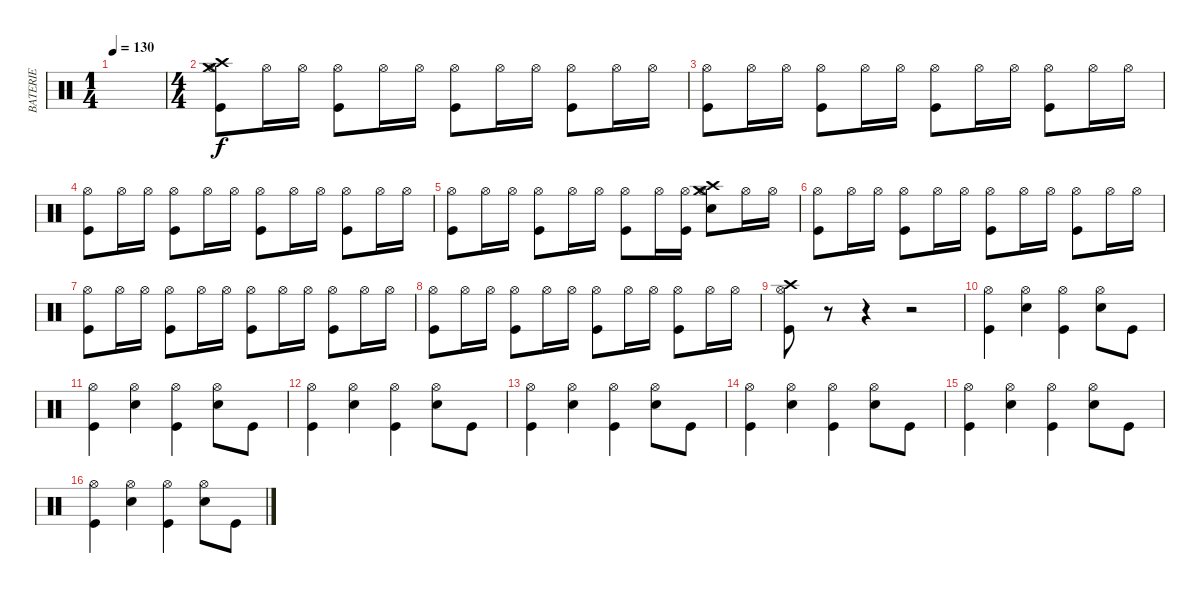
\track ("BATERIE" "BATERIE") {instrument percussion}
\staff {score}
\articulation defaults
\ts (1 4)
\tempo 130
\clef neutral
\ks c
|
\ts (4 4)
("Crash high (hit)" "Crash medium (hit)" "Hi-Hat (open)" "Kick (hit)").8 "Hi-Hat (open)".16 "Hi-Hat (open)".16 ("Hi-Hat (open)" "Kick (hit)").8 "Hi-Hat (open)".16 "Hi-Hat (open)".16 ("Hi-Hat (open)" "Kick (hit)").8 "Hi-Hat (open)".16 "Hi-Hat (open)".16 ("Hi-Hat (open)" "Kick (hit)").8 "Hi-Hat (open)".16 "Hi-Hat (open)".16 |
("Hi-Hat (open)" "Kick (hit)").8 "Hi-Hat (open)".16 "Hi-Hat (open)".16 ("Hi-Hat (open)" "Kick (hit)").8 "Hi-Hat (open)".16 "Hi-Hat (open)".16 ("Hi-Hat (open)" "Kick (hit)").8 "Hi-Hat (open)".16 "Hi-Hat (open)".16 ("Hi-Hat (open)" "Kick (hit)").8 "Hi-Hat (open)".16 "Hi-Hat (open)".16 |
("Hi-Hat (open)" "Kick (hit)").8 "Hi-Hat (open)".16 "Hi-Hat (open)".16 ("Hi-Hat (open)" "Kick (hit)").8 "Hi-Hat (open)".16 "Hi-Hat (open)".16 ("Hi-Hat (open)" "Kick (hit)").8 "Hi-Hat (open)".16 "Hi-Hat (open)".16 ("Hi-Hat (open)" "Kick (hit)").8 "Hi-Hat (open)".16 "Hi-Hat (open)".16 |
("Hi-Hat (open)" "Kick (hit)").8 "Hi-Hat (open)".16 "Hi-Hat (open)".16 ("Hi-Hat (open)" "Kick (hit)").8 "Hi-Hat (open)".16 "Hi-Hat (open)".16 ("Hi-Hat (open)" "Kick (hit)").8 "Hi-Hat (open)".16 ("Hi-Hat (open)" "Kick (hit)").16 ("Crash high (hit)" "Crash medium (hit)" "Hi-Hat (open)" "Snare (hit) 2").8 "Hi-Hat (open)".16 "Hi-Hat (open)".16 |
("Hi-Hat (open)" "Kick (hit)").8 "Hi-Hat (open)".16 "Hi-Hat (open)".16 ("Hi-Hat (open)" "Kick (hit)").8 "Hi-Hat (open)".16 "Hi-Hat (open)".16 ("Hi-Hat (open)" "Kick (hit)").8 "Hi-Hat (open)".16 "Hi-Hat (open)".16 ("Hi-Hat (open)" "Kick (hit)").8 "Hi-Hat (open)".16 "Hi-Hat (open)".16 |
("Hi-Hat (open)" "Kick (hit)").8 "Hi-Hat (open)".16 "Hi-Hat (open)".16 ("Hi-Hat (open)" "Kick (hit)").8 "Hi-Hat (open)".16 "Hi-Hat (open)".16 ("Hi-Hat (open)" "Kick (hit)").8 "Hi-Hat (open)".16 "Hi-Hat (open)".16 ("Hi-Hat (open)" "Kick (hit)").8 "Hi-Hat (open)".16 "Hi-Hat (open)".16 |
("Hi-Hat (open)" "Kick (hit)").8 "Hi-Hat (open)".16 "Hi-Hat (open)".16 ("Hi-Hat (open)" "Kick (hit)").8 "Hi-Hat (open)".16 "Hi-Hat (open)".16 ("Hi-Hat (open)" "Kick (hit)").8 "Hi-Hat (open)".16 "Hi-Hat (open)".16 ("Hi-Hat (open)" "Kick (hit)").8 "Hi-Hat (open)".16 "Hi-Hat (open)".16 |
("Crash high (hit)" "Hi-Hat (open)" "Kick (hit)").8 r.8 r.4 r.2 |
("Hi-Hat (open)" "Kick (hit)").4 ("Hi-Hat (open)" "Snare (hit) 2").4 ("Hi-Hat (open)" "Kick (hit)").4 ("Hi-Hat (open)" "Snare (hit) 2").8 "Kick (hit)".8 |
("Hi-Hat (open)" "Kick (hit)").4 ("Hi-Hat (open)" "Snare (hit) 2").4 ("Hi-Hat (open)" "Kick (hit)").4 ("Hi-Hat (open)" "Snare (hit) 2").8 "Kick (hit)".8 |
("Hi-Hat (open)" "Kick (hit)").4 ("Hi-Hat (open)" "Snare (hit) 2").4 ("Hi-Hat (open)" "Kick (hit)").4 ("Hi-Hat (open)" "Snare (hit) 2").8 "Kick (hit)".8 |
("Hi-Hat (open)" "Kick (hit)").4 ("Hi-Hat (open)" "Snare (hit) 2").4 ("Hi-Hat (open)" "Kick (hit)").4 ("Hi-Hat (open)" "Snare (hit) 2").8 "Kick (hit)".8 |
("Hi-Hat (open)" "Kick (hit)").4 ("Hi-Hat (open)" "Snare (hit) 2").4 ("Hi-Hat (open)" "Kick (hit)").4 ("Hi-Hat (open)" "Snare (hit) 2").8 "Kick (hit)".8 |
("Hi-Hat (open)" "Kick (hit)").4 ("Hi-Hat (open)" "Snare (hit) 2").4 ("Hi-Hat (open)" "Kick (hit)").4 ("Hi-Hat (open)" "Snare (hit) 2").8 "Kick (hit)".8 |
("Hi-Hat (open)" "Kick (hit)").4 ("Hi-Hat (open)" "Snare (hit) 2").4 ("Hi-Hat (open)" "Kick (hit)").4 ("Hi-Hat (open)" "Snare (hit) 2").8 "Kick (hit)".8
